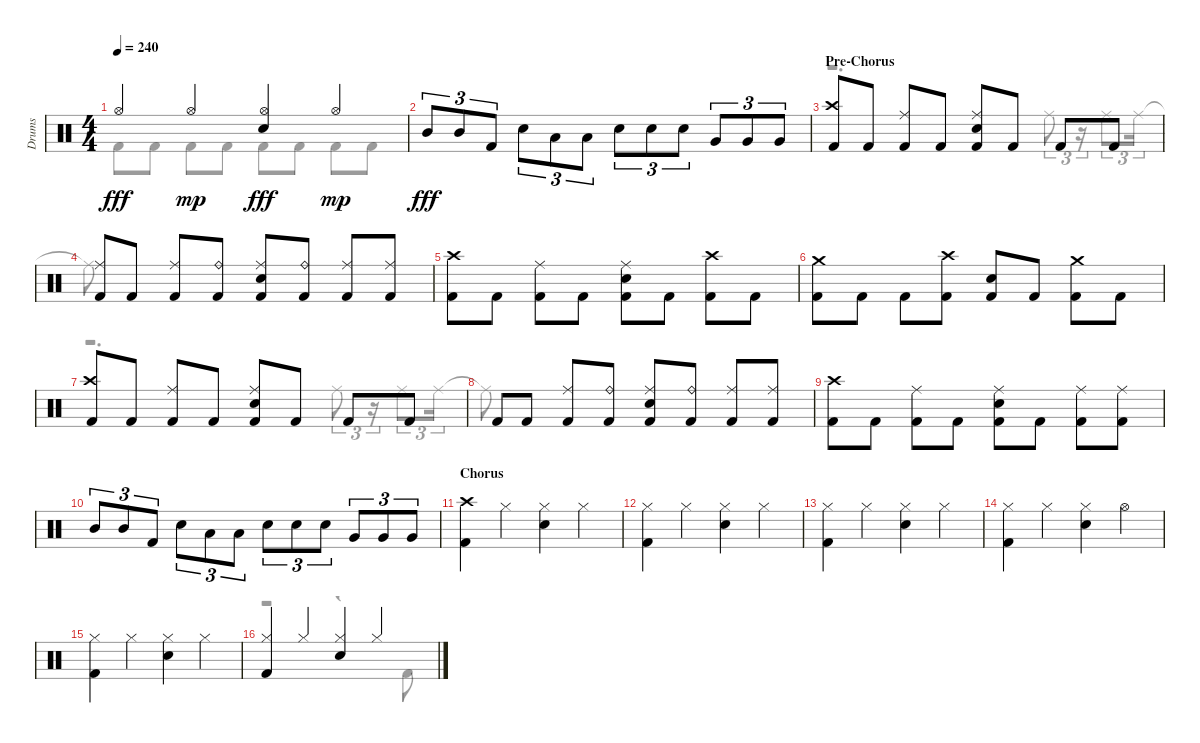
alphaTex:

\track ("Drums" "Drums") {instrument percussion}
\staff {score}
\articulation defaults
\voice
\ts (4 4)
\tempo 240
\clef neutral
\ks aminor "Hi-Hat (open)".4{dy fff} "Hi-Hat (open)".4{dy mp}
("Hi-Hat (open)" "Snare (hit) 2").4{dy fff} "Hi-Hat (open)".4{dy mp} |
"Mid Tom (hit)".8{tu (3 2) dy fff} "Mid Tom (hit)".8{tu (3 2)} "Kick (hit) 2".8{tu (3 2)} "Snare (hit) 2".8{tu (3 2)} "Low Tom (hit)".8{tu (3 2)} "Low Tom (hit)".8{tu (3 2)} "Snare (hit) 2".8{tu (3 2)} "Snare (hit) 2".8{tu (3 2)} "Snare (hit) 2".8{tu (3 2)} "Very Low Tom (hit)".8{tu (3 2)} "Very Low Tom (hit)".8{tu (3 2)} "Very Low Tom (hit)".8{tu (3 2)} |
\section ("" "Pre-Chorus")
("Kick (hit) 2" "Crash high (hit)").8 "Kick (hit) 2".8 ("Kick (hit) 2" "Ride (middle)").8 "Kick (hit) 2".8 ("Kick (hit) 2" "Ride (middle)" "Snare (hit) 2").8 "Kick (hit) 2".8 "Kick (hit) 2".8 "Kick (hit) 2".8 |
("Ride (middle)" "Kick (hit) 2").8 "Kick (hit) 2".8 ("Ride (middle)" "Kick (hit) 2").8 ("Ride (bell)" "Kick (hit) 2").8 ("Ride (middle)" "Snare (hit) 2" "Kick (hit) 2").8 ("Ride (bell)" "Kick (hit) 2").8 ("Ride (middle)" "Kick (hit) 2").8 ("Kick (hit) 2" "Ride (middle)").8 |
("Kick (hit) 2" "Crash high (hit)").8 "Kick (hit) 2".8 ("Kick (hit) 2" "Ride (middle)").8 "Kick (hit) 2".8 ("Ride (middle)" "Kick (hit) 2" "Snare (hit) 2").8 "Kick (hit) 2".8 ("Kick (hit) 2" "Crash high (hit)").8 "Kick (hit) 2".8 |
("Crash medium (hit)" "Kick (hit) 2").8 "Kick (hit) 2".8 "Kick (hit) 2".8 ("Crash high (hit)" "Kick (hit) 2").8 ("Snare (hit) 2" "Kick (hit) 2").8 "Kick (hit) 2".8 ("Crash medium (hit)" "Kick (hit) 2").8 "Kick (hit) 2".8 |
("Crash high (hit)" "Kick (hit) 2").8 "Kick (hit) 2".8 ("Kick (hit) 2" "Ride (middle)").8 "Kick (hit) 2".8 ("Ride (middle)" "Kick (hit) 2" "Snare (hit) 2").8 "Kick (hit) 2".8 "Kick (hit) 2".8 "Kick (hit) 2".8 |
"Kick (hit) 2".8 "Kick (hit) 2".8 ("Kick (hit) 2" "Ride (middle)").8 ("Kick (hit) 2" "Ride (bell)").8 ("Ride (middle)" "Kick (hit) 2" "Snare (hit) 2").8 ("Kick (hit) 2" "Ride (bell)").8 ("Ride (middle)" "Kick (hit) 2").8 ("Kick (hit) 2" "Ride (middle)").8 |
("Crash high (hit)" "Kick (hit) 2").8 "Kick (hit) 2".8 ("Ride (middle)" "Kick (hit) 2").8 "Kick (hit) 2".8 ("Ride (middle)" "Kick (hit) 2" "Snare (hit) 2").8 "Kick (hit) 2".8 ("Ride (middle)" "Kick (hit) 2").8 ("Ride (middle)" "Kick (hit) 2").8 |
"Mid Tom (hit)".8{tu (3 2)} "Mid Tom (hit)".8{tu (3 2)} "Kick (hit) 2".8{tu (3 2)} "Snare (hit) 2".8{tu (3 2)} "Low Tom (hit)".8{tu (3 2)} "Low Tom (hit)".8{tu (3 2)} "Snare (hit) 2".8{tu (3 2)} "Snare (hit) 2".8{tu (3 2)} "Snare (hit) 2".8{tu (3 2)} "Very Low Tom (hit)".8{tu (3 2)} "Very Low Tom (hit)".8{tu (3 2)} "Very Low Tom (hit)".8{tu (3 2)} |
\section ("" "Chorus")
("Kick (hit) 2" "Crash high (hit)").4 "Hi-Hat (closed)".4 ("Snare (hit) 2" "Hi-Hat (closed)").4 "Hi-Hat (closed)".4 |
("Kick (hit) 2" "Hi-Hat (closed)").4 "Hi-Hat (closed)".4 ("Snare (hit) 2" "Hi-Hat (closed)").4 "Hi-Hat (closed)".4 |
("Kick (hit) 2" "Hi-Hat (closed)").4 "Hi-Hat (closed)".4 ("Hi-Hat (closed)" "Snare (hit) 2").4 "Hi-Hat (closed)".4 |
("Hi-Hat (closed)" "Kick (hit) 2").4 "Hi-Hat (closed)".4 ("Hi-Hat (closed)" "Snare (hit) 2").4 "Hi-Hat (open)".4 |
("Kick (hit) 2" "Hi-Hat (closed)").4 "Hi-Hat (closed)".4 ("Hi-Hat (closed)" "Snare (hit) 2").4 "Hi-Hat (closed)".4 |
("Kick (hit) 2" "Hi-Hat (closed)").4 "Hi-Hat (closed)".4 ("Hi-Hat (closed)" "Snare (hit) 2").4 "Hi-Hat (closed)".4
\voice
\clef neutral
\ottava regular
\simile none
\ks aminor "Kick (hit) 2".8{dy fff} "Kick (hit) 2".8 "Kick (hit) 2".8 "Kick (hit) 2".8 "Kick (hit) 2".8 "Kick (hit) 2".8 "Kick (hit) 2".8 "Kick (hit) 2".8
|
|
r.2{d} "Ride (middle)".8{tu (3 2)} r.16{tu (3 2)} "Ride (middle)".8{tu (3 2)} "Ride (middle)".16{tu (3 2)} |
"Ride (middle)"{t}.8 |
|
|
r.2{d} "Ride (middle)".8{tu (3 2)} r.16{tu (3 2)} "Ride (middle)".8{tu (3 2)} "Ride (middle)".16{tu (3 2)} |
"Ride (middle)"{t}.8 |
|
|
|
|
|
|
|
r.2 r.4{d} "Kick (hit) 2".8
